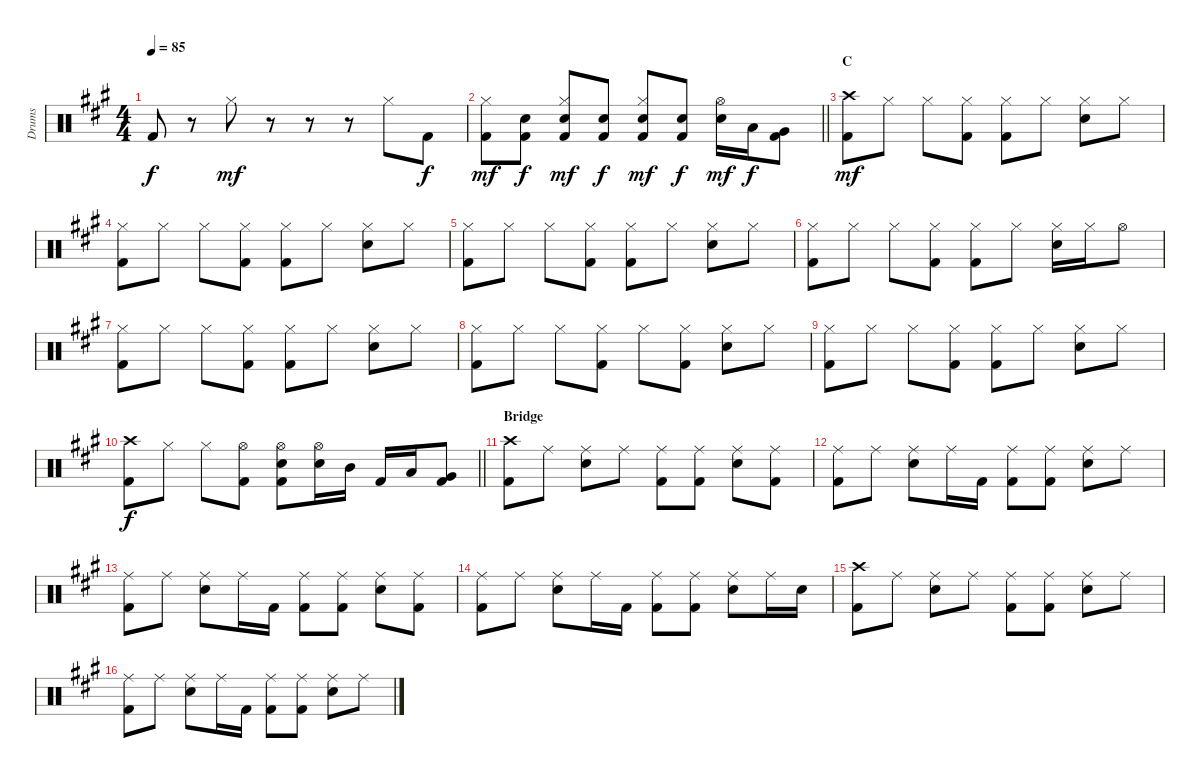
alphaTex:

\track ("Drums" "Drums") {instrument percussion}
\staff {score}
\articulation defaults
\ts (4 4)
\tempo 85
\clef neutral
\ks a "Kick (hit) 2".8{dy f}
r.8 "Hi-Hat (closed)".8{dy mf} r.8 r.8 r.8 "Hi-Hat (closed)".8 "Kick (hit) 2".8{dy f} |
\barLineRight lightlight
("Hi-Hat (closed)" "Kick (hit) 2").8{dy mf} ("Electric Snare (hit)" "Kick (hit) 2").8{dy f} ("Hi-Hat (closed)" "Electric Snare (hit)" "Kick (hit) 2").8{dy mf} ("Electric Snare (hit)" "Kick (hit) 2").8{dy f} ("Hi-Hat (closed)" "Electric Snare (hit)" "Kick (hit) 2").8{dy mf} ("Electric Snare (hit)" "Kick (hit) 2").8{dy f} ("Hi-Hat (open)" "Electric Snare (hit)").16{dy mf} "Low Tom (hit)".16{dy f} ("Very Low Tom (hit)" "Kick (hit) 2").8 |
\section ("" "C")
("Crash high (hit)" "Kick (hit) 2").8{dy mf} "Hi-Hat (closed)".8 "Hi-Hat (closed)".8 ("Hi-Hat (closed)" "Kick (hit) 2").8 ("Hi-Hat (closed)" "Kick (hit) 2").8 "Hi-Hat (closed)".8 ("Hi-Hat (closed)" "Electric Snare (hit)").8 "Hi-Hat (closed)".8 |
("Hi-Hat (closed)" "Kick (hit) 2").8 "Hi-Hat (closed)".8 "Hi-Hat (closed)".8 ("Hi-Hat (closed)" "Kick (hit) 2").8 ("Hi-Hat (closed)" "Kick (hit) 2").8 "Hi-Hat (closed)".8 ("Hi-Hat (closed)" "Electric Snare (hit)").8 "Hi-Hat (closed)".8 |
("Hi-Hat (closed)" "Kick (hit) 2").8 "Hi-Hat (closed)".8 "Hi-Hat (closed)".8 ("Hi-Hat (closed)" "Kick (hit) 2").8 ("Hi-Hat (closed)" "Kick (hit) 2").8 "Hi-Hat (closed)".8 ("Hi-Hat (closed)" "Electric Snare (hit)").8 "Hi-Hat (closed)".8 |
("Hi-Hat (closed)" "Kick (hit) 2").8 "Hi-Hat (closed)".8 "Hi-Hat (closed)".8 ("Hi-Hat (closed)" "Kick (hit) 2").8 ("Hi-Hat (closed)" "Kick (hit) 2").8 "Hi-Hat (closed)".8 ("Hi-Hat (closed)" "Electric Snare (hit)").16 "Hi-Hat (closed)".16 "Hi-Hat (open)".8 |
("Hi-Hat (closed)" "Kick (hit) 2").8 "Hi-Hat (closed)".8 "Hi-Hat (closed)".8 ("Hi-Hat (closed)" "Kick (hit) 2").8 ("Hi-Hat (closed)" "Kick (hit) 2").8 "Hi-Hat (closed)".8 ("Hi-Hat (closed)" "Electric Snare (hit)").8 "Hi-Hat (closed)".8 |
("Hi-Hat (closed)" "Kick (hit) 2").8 "Hi-Hat (closed)".8 "Hi-Hat (closed)".8 ("Hi-Hat (closed)" "Kick (hit) 2").8 "Hi-Hat (closed)".8 ("Hi-Hat (closed)" "Kick (hit) 2").8 ("Hi-Hat (closed)" "Electric Snare (hit)").8 "Hi-Hat (closed)".8 |
("Hi-Hat (closed)" "Kick (hit) 2").8 "Hi-Hat (closed)".8 "Hi-Hat (closed)".8 ("Hi-Hat (closed)" "Kick (hit) 2").8 ("Hi-Hat (closed)" "Kick (hit) 2").8 "Hi-Hat (closed)".8 ("Hi-Hat (closed)" "Electric Snare (hit)").8 "Hi-Hat (closed)".8 |
\barLineRight lightlight
("Crash high (hit)" "Kick (hit) 2").8{dy f} "Hi-Hat (closed)".8 "Hi-Hat (closed)".8 ("Hi-Hat (open)" "Kick (hit) 2").8 ("Hi-Hat (open)" "Electric Snare (hit)" "Kick (hit) 2").8 ("Hi-Hat (open)" "Electric Snare (hit)").16 "Mid Tom (hit)".16 "Kick (hit) 2".16 "Low Tom (hit)".16 ("Very Low Tom (hit)" "Kick (hit) 2").8 |
\section ("" "Bridge")
("Crash high (hit)" "Kick (hit) 2").8 "Ride (middle)".8 ("Ride (middle)" "Electric Snare (hit)").8 "Ride (middle)".8 ("Ride (middle)" "Kick (hit) 2").8 ("Ride (middle)" "Kick (hit) 2").8 ("Ride (middle)" "Electric Snare (hit)").8 ("Ride (middle)" "Kick (hit) 2").8 |
("Ride (middle)" "Kick (hit) 2").8 "Ride (middle)".8 ("Ride (middle)" "Electric Snare (hit)").8 "Ride (middle)".16 "Kick (hit) 2".16 ("Ride (middle)" "Kick (hit) 2").8 ("Ride (middle)" "Kick (hit) 2").8 ("Ride (middle)" "Electric Snare (hit)").8 "Ride (middle)".8 |
("Ride (middle)" "Kick (hit) 2").8 "Ride (middle)".8 ("Ride (middle)" "Electric Snare (hit)").8 "Ride (middle)".16 "Kick (hit) 2".16 ("Ride (middle)" "Kick (hit) 2").8 ("Ride (middle)" "Kick (hit) 2").8 ("Ride (middle)" "Electric Snare (hit)").8 ("Ride (middle)" "Kick (hit) 2").8 |
("Ride (middle)" "Kick (hit) 2").8 "Ride (middle)".8 ("Ride (middle)" "Electric Snare (hit)").8 "Ride (middle)".16 "Kick (hit) 2".16 ("Ride (middle)" "Kick (hit) 2").8 ("Ride (middle)" "Kick (hit) 2").8 ("Ride (middle)" "Electric Snare (hit)").8 "Ride (middle)".16 "Electric Snare (hit)".16 |
("Crash high (hit)" "Kick (hit) 2").8 "Ride (middle)".8 ("Ride (middle)" "Electric Snare (hit)").8 "Ride (middle)".8 ("Ride (middle)" "Kick (hit) 2").8 ("Ride (middle)" "Kick (hit) 2").8 ("Ride (middle)" "Electric Snare (hit)").8 "Ride (middle)".8 |
("Ride (middle)" "Kick (hit) 2").8 "Ride (middle)".8 ("Ride (middle)" "Electric Snare (hit)").8 "Ride (middle)".16 "Kick (hit) 2".16 ("Ride (middle)" "Kick (hit) 2").8 ("Ride (middle)" "Kick (hit) 2").8 ("Ride (middle)" "Electric Snare (hit)").8 "Ride (middle)".8
